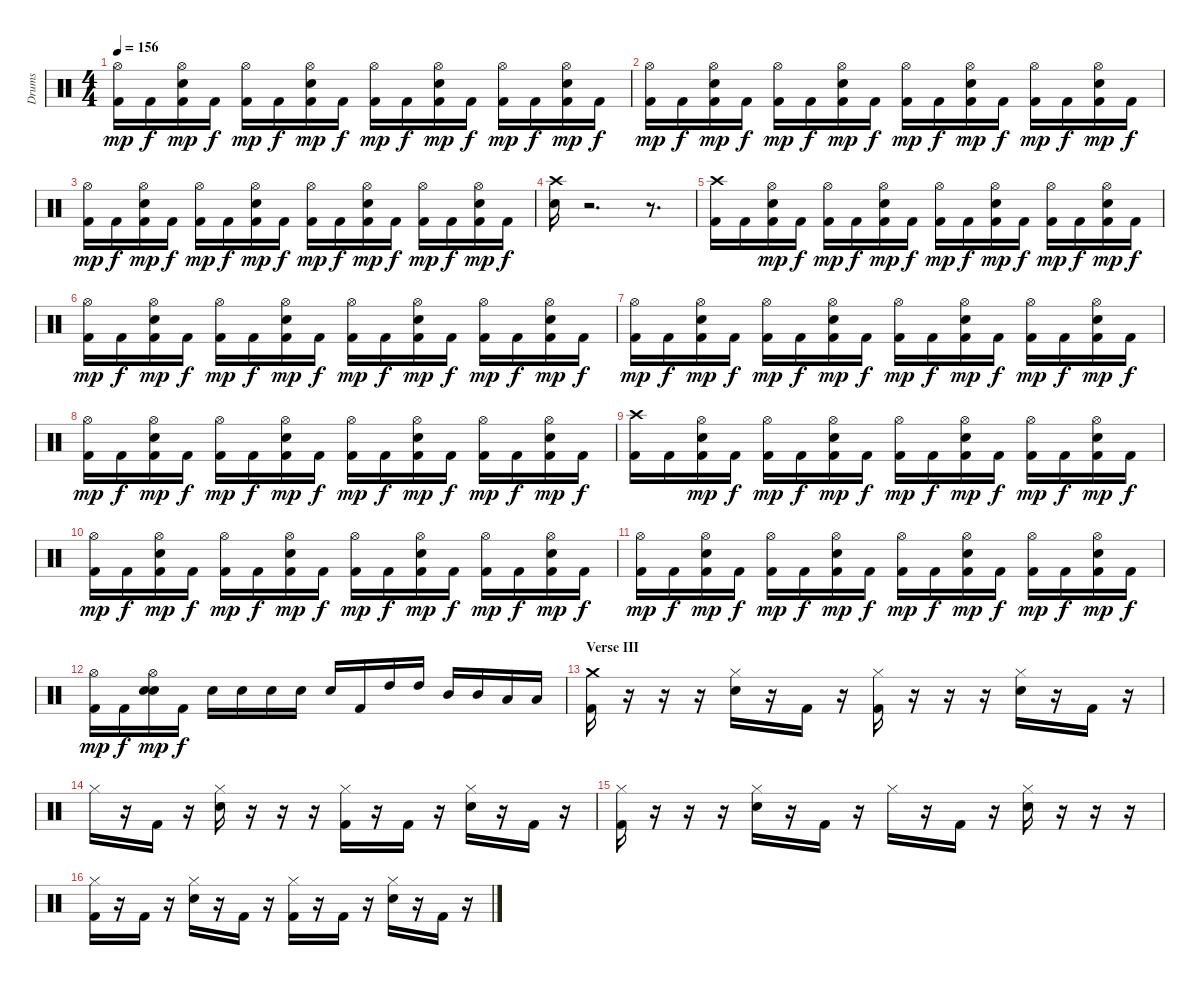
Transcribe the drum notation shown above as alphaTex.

\track ("Drums" "Drums") {instrument percussion}
\staff {score}
\articulation defaults
\ts (4 4)
\tempo 156
\clef neutral
\ks c
("Kick (hit) 2" "Hi-Hat (open)").16{dy mp} "Kick (hit) 2".16{dy f} ("Snare (hit) 2" "Kick (hit) 2" "Hi-Hat (open)").16{dy mp} "Kick (hit) 2".16{dy f} ("Kick (hit) 2" "Hi-Hat (open)").16{dy mp} "Kick (hit) 2".16{dy f} ("Snare (hit) 2" "Kick (hit) 2" "Hi-Hat (open)").16{dy mp} "Kick (hit) 2".16{dy f} ("Kick (hit) 2" "Hi-Hat (open)").16{dy mp} "Kick (hit) 2".16{dy f} ("Snare (hit) 2" "Kick (hit) 2" "Hi-Hat (open)").16{dy mp} "Kick (hit) 2".16{dy f} ("Kick (hit) 2" "Hi-Hat (open)").16{dy mp} "Kick (hit) 2".16{dy f} ("Snare (hit) 2" "Kick (hit) 2" "Hi-Hat (open)").16{dy mp} "Kick (hit) 2".16{dy f} |
("Kick (hit) 2" "Hi-Hat (open)").16{dy mp} "Kick (hit) 2".16{dy f} ("Snare (hit) 2" "Kick (hit) 2" "Hi-Hat (open)").16{dy mp} "Kick (hit) 2".16{dy f} ("Kick (hit) 2" "Hi-Hat (open)").16{dy mp} "Kick (hit) 2".16{dy f} ("Snare (hit) 2" "Kick (hit) 2" "Hi-Hat (open)").16{dy mp} "Kick (hit) 2".16{dy f} ("Kick (hit) 2" "Hi-Hat (open)").16{dy mp} "Kick (hit) 2".16{dy f} ("Snare (hit) 2" "Kick (hit) 2" "Hi-Hat (open)").16{dy mp} "Kick (hit) 2".16{dy f} ("Kick (hit) 2" "Hi-Hat (open)").16{dy mp} "Kick (hit) 2".16{dy f} ("Snare (hit) 2" "Kick (hit) 2" "Hi-Hat (open)").16{dy mp} "Kick (hit) 2".16{dy f} |
("Kick (hit) 2" "Hi-Hat (open)").16{dy mp} "Kick (hit) 2".16{dy f} ("Snare (hit) 2" "Kick (hit) 2" "Hi-Hat (open)").16{dy mp} "Kick (hit) 2".16{dy f} ("Kick (hit) 2" "Hi-Hat (open)").16{dy mp} "Kick (hit) 2".16{dy f} ("Snare (hit) 2" "Kick (hit) 2" "Hi-Hat (open)").16{dy mp} "Kick (hit) 2".16{dy f} ("Kick (hit) 2" "Hi-Hat (open)").16{dy mp} "Kick (hit) 2".16{dy f} ("Snare (hit) 2" "Kick (hit) 2" "Hi-Hat (open)").16{dy mp} "Kick (hit) 2".16{dy f} ("Kick (hit) 2" "Hi-Hat (open)").16{dy mp} "Kick (hit) 2".16{dy f} ("Snare (hit) 2" "Kick (hit) 2" "Hi-Hat (open)").16{dy mp} "Kick (hit) 2".16{dy f} |
("Snare (hit) 2" "Crash high (hit)").16 r.2{d} r.8{d} |
\section ("" "")
("Kick (hit) 2" "Crash high (hit)").16 "Kick (hit) 2".16 ("Snare (hit) 2" "Kick (hit) 2" "Hi-Hat (open)").16{dy mp} "Kick (hit) 2".16{dy f} ("Kick (hit) 2" "Hi-Hat (open)").16{dy mp} "Kick (hit) 2".16{dy f} ("Snare (hit) 2" "Kick (hit) 2" "Hi-Hat (open)").16{dy mp} "Kick (hit) 2".16{dy f} ("Kick (hit) 2" "Hi-Hat (open)").16{dy mp} "Kick (hit) 2".16{dy f} ("Snare (hit) 2" "Kick (hit) 2" "Hi-Hat (open)").16{dy mp} "Kick (hit) 2".16{dy f} ("Kick (hit) 2" "Hi-Hat (open)").16{dy mp} "Kick (hit) 2".16{dy f} ("Snare (hit) 2" "Kick (hit) 2" "Hi-Hat (open)").16{dy mp} "Kick (hit) 2".16{dy f} |
("Kick (hit) 2" "Hi-Hat (open)").16{dy mp} "Kick (hit) 2".16{dy f} ("Snare (hit) 2" "Kick (hit) 2" "Hi-Hat (open)").16{dy mp} "Kick (hit) 2".16{dy f} ("Kick (hit) 2" "Hi-Hat (open)").16{dy mp} "Kick (hit) 2".16{dy f} ("Snare (hit) 2" "Kick (hit) 2" "Hi-Hat (open)").16{dy mp} "Kick (hit) 2".16{dy f} ("Kick (hit) 2" "Hi-Hat (open)").16{dy mp} "Kick (hit) 2".16{dy f} ("Snare (hit) 2" "Kick (hit) 2" "Hi-Hat (open)").16{dy mp} "Kick (hit) 2".16{dy f} ("Kick (hit) 2" "Hi-Hat (open)").16{dy mp} "Kick (hit) 2".16{dy f} ("Snare (hit) 2" "Kick (hit) 2" "Hi-Hat (open)").16{dy mp} "Kick (hit) 2".16{dy f} |
("Kick (hit) 2" "Hi-Hat (open)").16{dy mp} "Kick (hit) 2".16{dy f} ("Snare (hit) 2" "Kick (hit) 2" "Hi-Hat (open)").16{dy mp} "Kick (hit) 2".16{dy f} ("Kick (hit) 2" "Hi-Hat (open)").16{dy mp} "Kick (hit) 2".16{dy f} ("Snare (hit) 2" "Kick (hit) 2" "Hi-Hat (open)").16{dy mp} "Kick (hit) 2".16{dy f} ("Kick (hit) 2" "Hi-Hat (open)").16{dy mp} "Kick (hit) 2".16{dy f} ("Snare (hit) 2" "Kick (hit) 2" "Hi-Hat (open)").16{dy mp} "Kick (hit) 2".16{dy f} ("Kick (hit) 2" "Hi-Hat (open)").16{dy mp} "Kick (hit) 2".16{dy f} ("Snare (hit) 2" "Kick (hit) 2" "Hi-Hat (open)").16{dy mp} "Kick (hit) 2".16{dy f} |
("Kick (hit) 2" "Hi-Hat (open)").16{dy mp} "Kick (hit) 2".16{dy f} ("Snare (hit) 2" "Kick (hit) 2" "Hi-Hat (open)").16{dy mp} "Kick (hit) 2".16{dy f} ("Kick (hit) 2" "Hi-Hat (open)").16{dy mp} "Kick (hit) 2".16{dy f} ("Snare (hit) 2" "Kick (hit) 2" "Hi-Hat (open)").16{dy mp} "Kick (hit) 2".16{dy f} ("Kick (hit) 2" "Hi-Hat (open)").16{dy mp} "Kick (hit) 2".16{dy f} ("Snare (hit) 2" "Kick (hit) 2" "Hi-Hat (open)").16{dy mp} "Kick (hit) 2".16{dy f} ("Kick (hit) 2" "Hi-Hat (open)").16{dy mp} "Kick (hit) 2".16{dy f} ("Snare (hit) 2" "Kick (hit) 2" "Hi-Hat (open)").16{dy mp} "Kick (hit) 2".16{dy f} |
("Kick (hit) 2" "Crash high (hit)").16 "Kick (hit) 2".16 ("Snare (hit) 2" "Kick (hit) 2" "Hi-Hat (open)").16{dy mp} "Kick (hit) 2".16{dy f} ("Kick (hit) 2" "Hi-Hat (open)").16{dy mp} "Kick (hit) 2".16{dy f} ("Snare (hit) 2" "Kick (hit) 2" "Hi-Hat (open)").16{dy mp} "Kick (hit) 2".16{dy f} ("Kick (hit) 2" "Hi-Hat (open)").16{dy mp} "Kick (hit) 2".16{dy f} ("Snare (hit) 2" "Kick (hit) 2" "Hi-Hat (open)").16{dy mp} "Kick (hit) 2".16{dy f} ("Kick (hit) 2" "Hi-Hat (open)").16{dy mp} "Kick (hit) 2".16{dy f} ("Snare (hit) 2" "Kick (hit) 2" "Hi-Hat (open)").16{dy mp} "Kick (hit) 2".16{dy f} |
("Kick (hit) 2" "Hi-Hat (open)").16{dy mp} "Kick (hit) 2".16{dy f} ("Snare (hit) 2" "Kick (hit) 2" "Hi-Hat (open)").16{dy mp} "Kick (hit) 2".16{dy f} ("Kick (hit) 2" "Hi-Hat (open)").16{dy mp} "Kick (hit) 2".16{dy f} ("Snare (hit) 2" "Kick (hit) 2" "Hi-Hat (open)").16{dy mp} "Kick (hit) 2".16{dy f} ("Kick (hit) 2" "Hi-Hat (open)").16{dy mp} "Kick (hit) 2".16{dy f} ("Snare (hit) 2" "Kick (hit) 2" "Hi-Hat (open)").16{dy mp} "Kick (hit) 2".16{dy f} ("Kick (hit) 2" "Hi-Hat (open)").16{dy mp} "Kick (hit) 2".16{dy f} ("Snare (hit) 2" "Kick (hit) 2" "Hi-Hat (open)").16{dy mp} "Kick (hit) 2".16{dy f} |
("Kick (hit) 2" "Hi-Hat (open)").16{dy mp} "Kick (hit) 2".16{dy f} ("Snare (hit) 2" "Kick (hit) 2" "Hi-Hat (open)").16{dy mp} "Kick (hit) 2".16{dy f} ("Kick (hit) 2" "Hi-Hat (open)").16{dy mp} "Kick (hit) 2".16{dy f} ("Snare (hit) 2" "Kick (hit) 2" "Hi-Hat (open)").16{dy mp} "Kick (hit) 2".16{dy f} ("Kick (hit) 2" "Hi-Hat (open)").16{dy mp} "Kick (hit) 2".16{dy f} ("Snare (hit) 2" "Kick (hit) 2" "Hi-Hat (open)").16{dy mp} "Kick (hit) 2".16{dy f} ("Kick (hit) 2" "Hi-Hat (open)").16{dy mp} "Kick (hit) 2".16{dy f} ("Snare (hit) 2" "Kick (hit) 2" "Hi-Hat (open)").16{dy mp} "Kick (hit) 2".16{dy f} |
("Kick (hit) 2" "Hi-Hat (open)").16{dy mp} "Kick (hit) 2".16{dy f} ("Snare (hit) 2" "Snare (hit) 2" "Hi-Hat (open)").16{dy mp} "Kick (hit) 2".16{dy f} "Snare (hit) 2".16 "Snare (hit) 2".16 "Snare (hit) 2".16 "Snare (hit) 2".16 "Snare (hit) 2".16 "Kick (hit) 2".16 "High Tom (hit)".16 "High Tom (hit)".16 "Mid Tom (hit)".16 "Mid Tom (hit)".16 "Low Tom (hit)".16 "Low Tom (hit)".16 |
\section ("" "Verse III")
("Kick (hit) 2" "Crash medium (hit)").16 r.16 r.16 r.16 ("Snare (hit) 2" "Hi-Hat (closed)").16 r.16 "Kick (hit) 2".16 r.16 ("Kick (hit) 2" "Hi-Hat (closed)").16 r.16 r.16 r.16 ("Snare (hit) 2" "Hi-Hat (closed)").16 r.16 "Kick (hit) 2".16 r.16 |
"Hi-Hat (closed)".16 r.16 "Kick (hit) 2".16 r.16 ("Snare (hit) 2" "Hi-Hat (closed)").16 r.16 r.16 r.16 ("Kick (hit) 2" "Hi-Hat (closed)").16 r.16 "Kick (hit) 2".16 r.16 ("Snare (hit) 2" "Hi-Hat (closed)").16 r.16 "Kick (hit) 2".16 r.16 |
("Kick (hit) 2" "Hi-Hat (closed)").16 r.16 r.16 r.16 ("Snare (hit) 2" "Hi-Hat (closed)").16 r.16 "Kick (hit) 2".16 r.16 "Hi-Hat (closed)".16 r.16 "Kick (hit) 2".16 r.16 ("Snare (hit) 2" "Hi-Hat (closed)").16 r.16 r.16 r.16 |
("Kick (hit) 2" "Hi-Hat (closed)").16 r.16 "Kick (hit) 2".16 r.16 ("Snare (hit) 2" "Hi-Hat (closed)").16 r.16 "Kick (hit) 2".16 r.16 ("Kick (hit) 2" "Hi-Hat (closed)").16 r.16 "Kick (hit) 2".16 r.16 ("Snare (hit) 2" "Hi-Hat (closed)").16 r.16 "Kick (hit) 2".16 r.16
